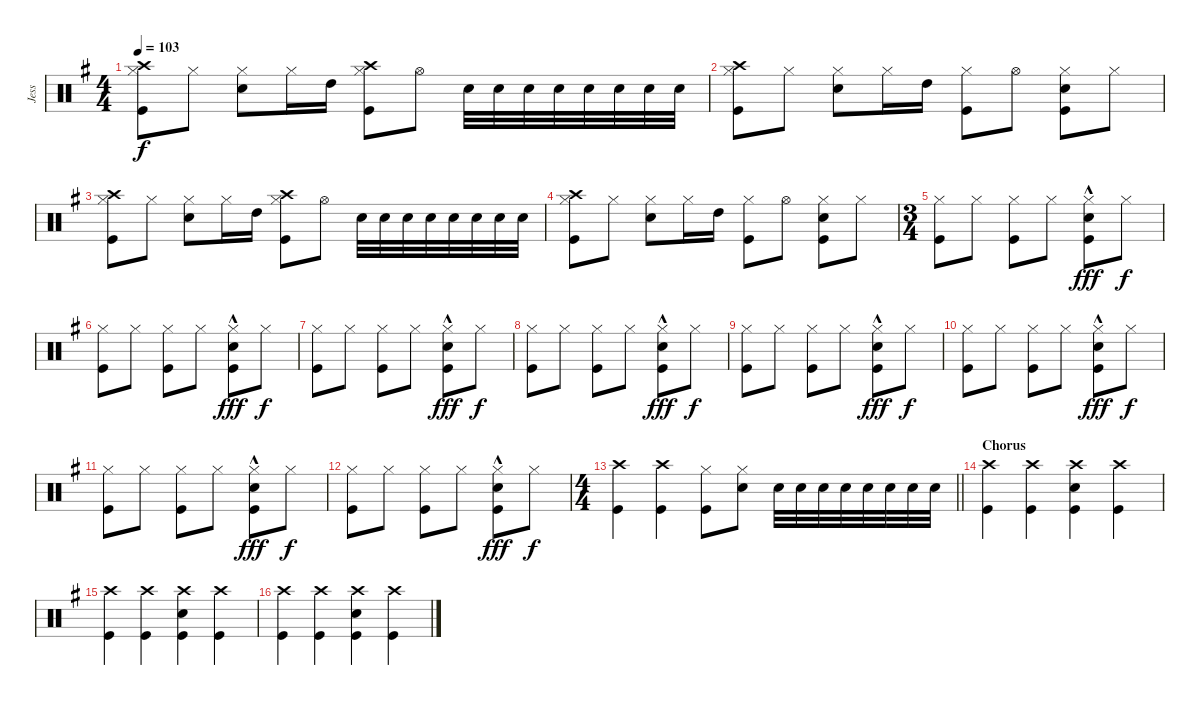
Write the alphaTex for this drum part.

\track ("Jess" "Jess") {instrument percussion}
\staff {score}
\articulation defaults
\ts (4 4)
\tempo 103
\clef neutral
\ks g
("Crash high (hit)" "Hi-Hat (closed)" "Kick (hit)").8{dy f} "Hi-Hat (closed)".8 ("Hi-Hat (closed)" "Snare (hit) 2").8 "Hi-Hat (closed)".16 "High Tom (hit)".16 ("Crash high (hit)" "Hi-Hat (closed)" "Kick (hit)").8 "Hi-Hat (open)".8 "Snare (hit) 2".32 "Snare (hit) 2".32 "Snare (hit) 2".32 "Snare (hit) 2".32 "Snare (hit) 2".32 "Snare (hit) 2".32 "Snare (hit) 2".32 "Snare (hit) 2".32 |
("Crash high (hit)" "Hi-Hat (closed)" "Kick (hit)").8 "Hi-Hat (closed)".8 ("Hi-Hat (closed)" "Snare (hit) 2").8 "Hi-Hat (closed)".16 "High Tom (hit)".16 ("Hi-Hat (closed)" "Kick (hit)").8 "Hi-Hat (open)".8 ("Hi-Hat (closed)" "Snare (hit) 2" "Kick (hit)").8 "Hi-Hat (closed)".8 |
("Crash high (hit)" "Hi-Hat (closed)" "Kick (hit)").8 "Hi-Hat (closed)".8 ("Hi-Hat (closed)" "Snare (hit) 2").8 "Hi-Hat (closed)".16 "High Tom (hit)".16 ("Crash high (hit)" "Hi-Hat (closed)" "Kick (hit)").8 "Hi-Hat (open)".8 "Snare (hit) 2".32 "Snare (hit) 2".32 "Snare (hit) 2".32 "Snare (hit) 2".32 "Snare (hit) 2".32 "Snare (hit) 2".32 "Snare (hit) 2".32 "Snare (hit) 2".32 |
("Crash high (hit)" "Hi-Hat (closed)" "Kick (hit)").8 "Hi-Hat (closed)".8 ("Hi-Hat (closed)" "Snare (hit) 2").8 "Hi-Hat (closed)".16 "High Tom (hit)".16 ("Hi-Hat (closed)" "Kick (hit)").8 "Hi-Hat (open)".8 ("Hi-Hat (closed)" "Snare (hit) 2" "Kick (hit)").8 "Hi-Hat (closed)".8 |
\ts (3 4)
("Hi-Hat (closed)" "Kick (hit)").8 "Hi-Hat (closed)".8 ("Hi-Hat (closed)" "Kick (hit)").8 "Hi-Hat (closed)".8 ("Hi-Hat (closed)"{hac} "Snare (hit) 2"{hac} "Kick (hit)"{hac}).8{dy fff} "Hi-Hat (closed)".8{dy f} |
("Hi-Hat (closed)" "Kick (hit)").8 "Hi-Hat (closed)".8 ("Hi-Hat (closed)" "Kick (hit)").8 "Hi-Hat (closed)".8 ("Hi-Hat (closed)"{hac} "Snare (hit) 2"{hac} "Kick (hit)"{hac}).8{dy fff} "Hi-Hat (closed)".8{dy f} |
("Hi-Hat (closed)" "Kick (hit)").8 "Hi-Hat (closed)".8 ("Hi-Hat (closed)" "Kick (hit)").8 "Hi-Hat (closed)".8 ("Hi-Hat (closed)"{hac} "Snare (hit) 2"{hac} "Kick (hit)"{hac}).8{dy fff} "Hi-Hat (closed)".8{dy f} |
("Hi-Hat (closed)" "Kick (hit)").8 "Hi-Hat (closed)".8 ("Hi-Hat (closed)" "Kick (hit)").8 "Hi-Hat (closed)".8 ("Hi-Hat (closed)"{hac} "Snare (hit) 2"{hac} "Kick (hit)"{hac}).8{dy fff} "Hi-Hat (closed)".8{dy f} |
("Hi-Hat (closed)" "Kick (hit)").8 "Hi-Hat (closed)".8 ("Hi-Hat (closed)" "Kick (hit)").8 "Hi-Hat (closed)".8 ("Hi-Hat (closed)"{hac} "Snare (hit) 2"{hac} "Kick (hit)"{hac}).8{dy fff} "Hi-Hat (closed)".8{dy f} |
("Hi-Hat (closed)" "Kick (hit)").8 "Hi-Hat (closed)".8 ("Hi-Hat (closed)" "Kick (hit)").8 "Hi-Hat (closed)".8 ("Hi-Hat (closed)"{hac} "Snare (hit) 2"{hac} "Kick (hit)"{hac}).8{dy fff} "Hi-Hat (closed)".8{dy f} |
("Hi-Hat (closed)" "Kick (hit)").8 "Hi-Hat (closed)".8 ("Hi-Hat (closed)" "Kick (hit)").8 "Hi-Hat (closed)".8 ("Hi-Hat (closed)"{hac} "Snare (hit) 2"{hac} "Kick (hit)"{hac}).8{dy fff} "Hi-Hat (closed)".8{dy f} |
("Hi-Hat (closed)" "Kick (hit)").8 "Hi-Hat (closed)".8 ("Hi-Hat (closed)" "Kick (hit)").8 "Hi-Hat (closed)".8 ("Hi-Hat (closed)"{hac} "Snare (hit) 2"{hac} "Kick (hit)"{hac}).8{dy fff} "Hi-Hat (closed)".8{dy f} |
\ts (4 4)
\barLineRight lightlight
("Crash high (hit)" "Kick (hit)").4 ("Crash high (hit)" "Kick (hit)").4 ("Hi-Hat (closed)" "Kick (hit)").8 ("Hi-Hat (closed)" "Snare (hit) 2").8 "Snare (hit) 2".32 "Snare (hit) 2".32 "Snare (hit) 2".32 "Snare (hit) 2".32 "Snare (hit) 2".32 "Snare (hit) 2".32 "Snare (hit) 2".32 "Snare (hit) 2".32 |
\section ("" "Chorus")
("Crash high (hit)" "Kick (hit)").4 ("Crash high (hit)" "Kick (hit)").4 ("Crash high (hit)" "Snare (hit) 2" "Kick (hit)").4 ("Crash high (hit)" "Kick (hit)").4 |
("Crash high (hit)" "Kick (hit)").4 ("Crash high (hit)" "Kick (hit)").4 ("Crash high (hit)" "Snare (hit) 2" "Kick (hit)").4 ("Crash high (hit)" "Kick (hit)").4 |
("Crash high (hit)" "Kick (hit)").4 ("Crash high (hit)" "Kick (hit)").4 ("Crash high (hit)" "Snare (hit) 2" "Kick (hit)").4 ("Crash high (hit)" "Kick (hit)").4
